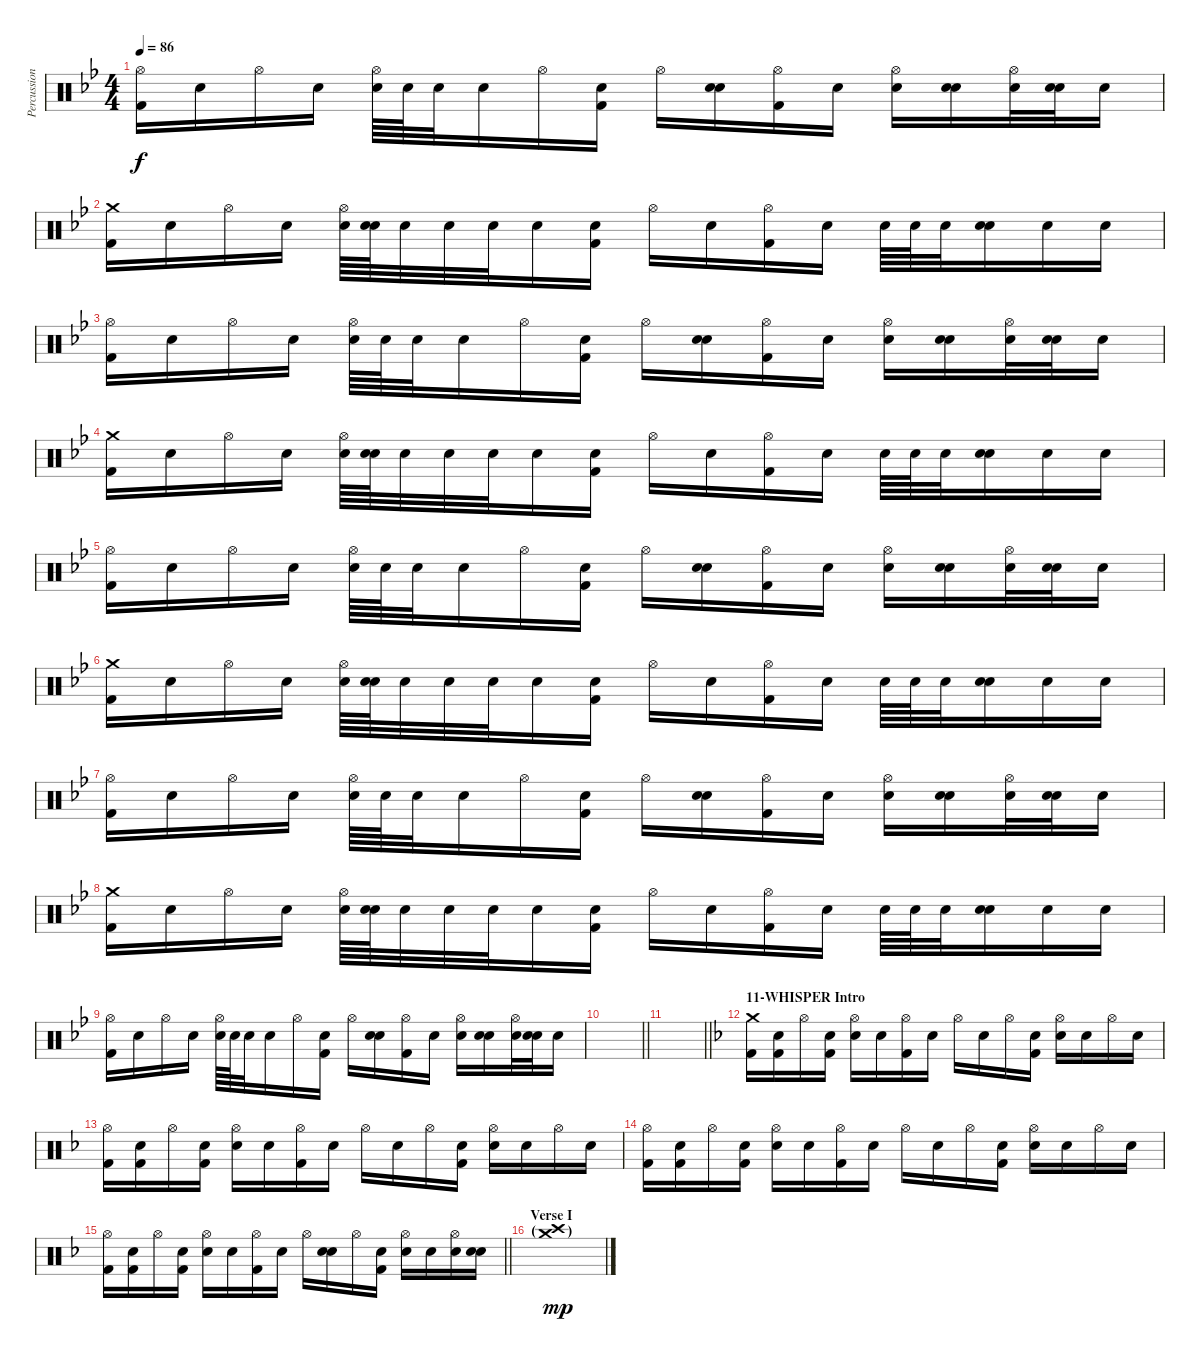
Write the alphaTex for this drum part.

\track ("Percussion" "Percussion") {instrument percussion}
\staff {score}
\articulation defaults
\ts (4 4)
\tempo 86
\clef neutral
\ks gminor
("Hi-Hat (open)" "Kick (hit) 2").16{dy f volume 4} "Snare (hit)".16 "Hi-Hat (open)".16 "Snare (hit)".16 ("Hi-Hat (open)" "Electric Snare (hit)").64 "Electric Snare (hit)".64 "Electric Snare (hit)".32 "Snare (hit)".16 "Hi-Hat (open)".16 ("Snare (hit)" "Kick (hit) 2").16 "Hi-Hat (open)".16 ("Snare (hit)" "Electric Snare (hit)").16 ("Hi-Hat (open)" "Kick (hit) 2").16 "Snare (hit)".16 ("Hi-Hat (open)" "Electric Snare (hit)").16 ("Snare (hit)" "Electric Snare (hit)").16 ("Hi-Hat (open)" "Electric Snare (hit)").32 ("Snare (hit)" "Electric Snare (hit)").32 "Electric Snare (hit)".16 |
("Crash medium (hit)" "Kick (hit) 2").16 "Snare (hit)".16 "Hi-Hat (open)".16 "Snare (hit)".16 ("Hi-Hat (open)" "Electric Snare (hit)").64 ("Snare (hit)" "Electric Snare (hit)").64 "Electric Snare (hit)".32 "Electric Snare (hit)".32 "Electric Snare (hit)".32 "Electric Snare (hit)".16 ("Snare (hit)" "Kick (hit) 2").16 "Hi-Hat (open)".16 "Snare (hit)".16 ("Hi-Hat (open)" "Kick (hit) 2").16 "Snare (hit)".16 "Electric Snare (hit)".64 "Electric Snare (hit)".64 "Electric Snare (hit)".32 ("Snare (hit)" "Electric Snare (hit)").16 "Electric Snare (hit)".16 "Electric Snare (hit)".16 |
("Hi-Hat (open)" "Kick (hit) 2").16 "Snare (hit)".16 "Hi-Hat (open)".16 "Snare (hit)".16 ("Hi-Hat (open)" "Electric Snare (hit)").64 "Electric Snare (hit)".64 "Electric Snare (hit)".32 "Snare (hit)".16 "Hi-Hat (open)".16 ("Snare (hit)" "Kick (hit) 2").16 "Hi-Hat (open)".16 ("Snare (hit)" "Electric Snare (hit)").16 ("Hi-Hat (open)" "Kick (hit) 2").16 "Snare (hit)".16 ("Hi-Hat (open)" "Electric Snare (hit)").16 ("Snare (hit)" "Electric Snare (hit)").16 ("Hi-Hat (open)" "Electric Snare (hit)").32 ("Snare (hit)" "Electric Snare (hit)").32 "Electric Snare (hit)".16 |
("Crash medium (hit)" "Kick (hit) 2").16 "Snare (hit)".16 "Hi-Hat (open)".16 "Snare (hit)".16 ("Hi-Hat (open)" "Electric Snare (hit)").64 ("Snare (hit)" "Electric Snare (hit)").64 "Electric Snare (hit)".32 "Electric Snare (hit)".32 "Electric Snare (hit)".32 "Electric Snare (hit)".16 ("Snare (hit)" "Kick (hit) 2").16 "Hi-Hat (open)".16 "Snare (hit)".16 ("Hi-Hat (open)" "Kick (hit) 2").16 "Snare (hit)".16 "Electric Snare (hit)".64 "Electric Snare (hit)".64 "Electric Snare (hit)".32 ("Snare (hit)" "Electric Snare (hit)").16 "Electric Snare (hit)".16 "Electric Snare (hit)".16 |
("Hi-Hat (open)" "Kick (hit) 2").16{volume 3} "Snare (hit)".16 "Hi-Hat (open)".16 "Snare (hit)".16 ("Hi-Hat (open)" "Electric Snare (hit)").64 "Electric Snare (hit)".64 "Electric Snare (hit)".32 "Snare (hit)".16 "Hi-Hat (open)".16 ("Snare (hit)" "Kick (hit) 2").16 "Hi-Hat (open)".16 ("Snare (hit)" "Electric Snare (hit)").16 ("Hi-Hat (open)" "Kick (hit) 2").16 "Snare (hit)".16 ("Hi-Hat (open)" "Electric Snare (hit)").16 ("Snare (hit)" "Electric Snare (hit)").16 ("Hi-Hat (open)" "Electric Snare (hit)").32 ("Snare (hit)" "Electric Snare (hit)").32 "Electric Snare (hit)".16 |
("Crash medium (hit)" "Kick (hit) 2").16 "Snare (hit)".16 "Hi-Hat (open)".16 "Snare (hit)".16 ("Hi-Hat (open)" "Electric Snare (hit)").64 ("Snare (hit)" "Electric Snare (hit)").64 "Electric Snare (hit)".32 "Electric Snare (hit)".32 "Electric Snare (hit)".32 "Electric Snare (hit)".16 ("Snare (hit)" "Kick (hit) 2").16 "Hi-Hat (open)".16 "Snare (hit)".16 ("Hi-Hat (open)" "Kick (hit) 2").16 "Snare (hit)".16 "Electric Snare (hit)".64 "Electric Snare (hit)".64 "Electric Snare (hit)".32 ("Snare (hit)" "Electric Snare (hit)").16 "Electric Snare (hit)".16 "Electric Snare (hit)".16 |
("Hi-Hat (open)" "Kick (hit) 2").16 "Snare (hit)".16 "Hi-Hat (open)".16 "Snare (hit)".16 ("Hi-Hat (open)" "Electric Snare (hit)").64 "Electric Snare (hit)".64 "Electric Snare (hit)".32 "Snare (hit)".16 "Hi-Hat (open)".16 ("Snare (hit)" "Kick (hit) 2").16 "Hi-Hat (open)".16 ("Snare (hit)" "Electric Snare (hit)").16 ("Hi-Hat (open)" "Kick (hit) 2").16 "Snare (hit)".16 ("Hi-Hat (open)" "Electric Snare (hit)").16 ("Snare (hit)" "Electric Snare (hit)").16 ("Hi-Hat (open)" "Electric Snare (hit)").32 ("Snare (hit)" "Electric Snare (hit)").32 "Electric Snare (hit)".16 |
("Crash medium (hit)" "Kick (hit) 2").16 "Snare (hit)".16 "Hi-Hat (open)".16 "Snare (hit)".16 ("Hi-Hat (open)" "Electric Snare (hit)").64 ("Snare (hit)" "Electric Snare (hit)").64 "Electric Snare (hit)".32 "Electric Snare (hit)".32 "Electric Snare (hit)".32 "Electric Snare (hit)".16 ("Snare (hit)" "Kick (hit) 2").16 "Hi-Hat (open)".16 "Snare (hit)".16 ("Hi-Hat (open)" "Kick (hit) 2").16 "Snare (hit)".16 "Electric Snare (hit)".64 "Electric Snare (hit)".64 "Electric Snare (hit)".32 ("Snare (hit)" "Electric Snare (hit)").16 "Electric Snare (hit)".16 "Electric Snare (hit)".16 |
("Hi-Hat (open)" "Kick (hit) 2").16 "Snare (hit)".16 "Hi-Hat (open)".16 "Snare (hit)".16 ("Hi-Hat (open)" "Electric Snare (hit)").64 "Electric Snare (hit)".64 "Electric Snare (hit)".32 "Snare (hit)".16 "Hi-Hat (open)".16 ("Snare (hit)" "Kick (hit) 2").16 "Hi-Hat (open)".16 ("Snare (hit)" "Electric Snare (hit)").16 ("Hi-Hat (open)" "Kick (hit) 2").16 "Snare (hit)".16 ("Hi-Hat (open)" "Electric Snare (hit)").16 ("Snare (hit)" "Electric Snare (hit)").16 ("Hi-Hat (open)" "Electric Snare (hit)").32 ("Snare (hit)" "Electric Snare (hit)").32 "Electric Snare (hit)".16 |
\barLineRight lightlight
|
\barLineRight lightlight
|
\section ("" "11-WHISPER Intro")
\ks f
("Crash medium (hit)" "Kick (hit) 2").16{volume 13} ("Snare (hit)" "Kick (hit) 2").16 "Hi-Hat (open)".16 ("Snare (hit)" "Kick (hit) 2").16 ("Hi-Hat (open)" "Electric Snare (hit)").16 "Snare (hit)".16 ("Hi-Hat (open)" "Kick (hit) 2").16 "Snare (hit)".16 "Hi-Hat (open)".16 "Snare (hit)".16 "Hi-Hat (open)".16 ("Snare (hit)" "Kick (hit) 2").16 ("Hi-Hat (open)" "Electric Snare (hit)").16 "Snare (hit)".16 "Hi-Hat (open)".16 "Snare (hit)".16 |
("Hi-Hat (open)" "Kick (hit) 2").16 ("Snare (hit)" "Kick (hit) 2").16 "Hi-Hat (open)".16 ("Snare (hit)" "Kick (hit) 2").16 ("Hi-Hat (open)" "Electric Snare (hit)").16 "Snare (hit)".16 ("Hi-Hat (open)" "Kick (hit) 2").16 "Snare (hit)".16 "Hi-Hat (open)".16 "Snare (hit)".16 "Hi-Hat (open)".16 ("Snare (hit)" "Kick (hit) 2").16 ("Hi-Hat (open)" "Electric Snare (hit)").16 "Snare (hit)".16 "Hi-Hat (open)".16 "Snare (hit)".16 |
("Hi-Hat (open)" "Kick (hit) 2").16 ("Snare (hit)" "Kick (hit) 2").16 "Hi-Hat (open)".16 ("Snare (hit)" "Kick (hit) 2").16 ("Hi-Hat (open)" "Electric Snare (hit)").16 "Snare (hit)".16 ("Hi-Hat (open)" "Kick (hit) 2").16 "Snare (hit)".16 "Hi-Hat (open)".16 "Snare (hit)".16 "Hi-Hat (open)".16 ("Snare (hit)" "Kick (hit) 2").16 ("Hi-Hat (open)" "Electric Snare (hit)").16 "Snare (hit)".16 "Hi-Hat (open)".16 "Snare (hit)".16 |
\barLineRight lightlight
("Hi-Hat (open)" "Kick (hit) 2").16 ("Snare (hit)" "Kick (hit) 2").16 "Hi-Hat (open)".16 ("Snare (hit)" "Kick (hit) 2").16 ("Hi-Hat (open)" "Electric Snare (hit)").16 "Snare (hit)".16 ("Hi-Hat (open)" "Kick (hit) 2").16 "Snare (hit)".16 "Hi-Hat (open)".16 ("Snare (hit)" "Electric Snare (hit)").16 "Hi-Hat (open)".16 ("Snare (hit)" "Kick (hit) 2").16 ("Hi-Hat (open)" "Electric Snare (hit)").16 "Snare (hit)".16 ("Hi-Hat (open)" "Electric Snare (hit)").16 ("Snare (hit)" "Electric Snare (hit)").16 |
\section ("" "Verse I")
("Crash high (hit)"{g} "Crash medium (hit)"{g}).1{dy mp}
